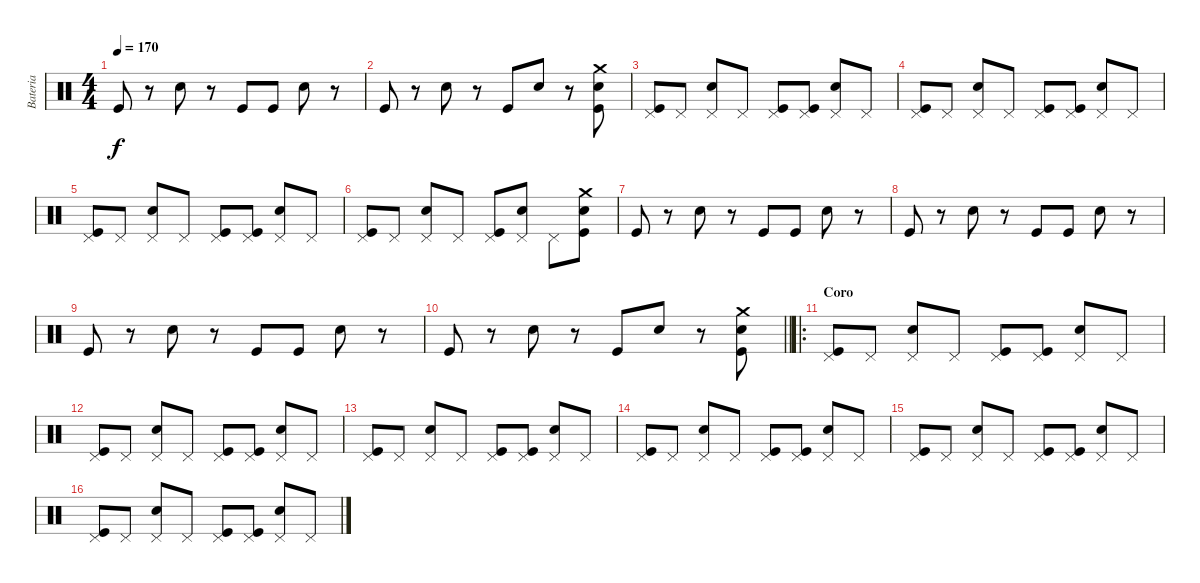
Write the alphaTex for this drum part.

\track ("Bateria" "Bateria") {instrument percussion}
\staff {score}
\articulation defaults
\ts (4 4)
\tempo 170
\clef neutral
\ks c "Kick (hit)".8{dy f}
r.8 "Electric Snare (hit)".8 r.8 "Kick (hit)".8 "Kick (hit)".8 "Electric Snare (hit)".8 r.8 |
"Kick (hit)".8 r.8 "Electric Snare (hit)".8 r.8 "Kick (hit)".8 "Electric Snare (hit)".8 r.8 ("Crash medium (hit)" "Electric Snare (hit)" "Kick (hit)").8 |
("Pedal Hi-Hat (hit)" "Kick (hit)").8 "Pedal Hi-Hat (hit)".8 ("Pedal Hi-Hat (hit)" "Electric Snare (hit)").8 "Pedal Hi-Hat (hit)".8 ("Pedal Hi-Hat (hit)" "Kick (hit)").8 ("Pedal Hi-Hat (hit)" "Kick (hit)").8 ("Pedal Hi-Hat (hit)" "Electric Snare (hit)").8 "Pedal Hi-Hat (hit)".8 |
("Pedal Hi-Hat (hit)" "Kick (hit)").8 "Pedal Hi-Hat (hit)".8 ("Pedal Hi-Hat (hit)" "Electric Snare (hit)").8 "Pedal Hi-Hat (hit)".8 ("Pedal Hi-Hat (hit)" "Kick (hit)").8 ("Pedal Hi-Hat (hit)" "Kick (hit)").8 ("Pedal Hi-Hat (hit)" "Electric Snare (hit)").8 "Pedal Hi-Hat (hit)".8 |
("Pedal Hi-Hat (hit)" "Kick (hit)").8 "Pedal Hi-Hat (hit)".8 ("Pedal Hi-Hat (hit)" "Electric Snare (hit)").8 "Pedal Hi-Hat (hit)".8 ("Pedal Hi-Hat (hit)" "Kick (hit)").8 ("Pedal Hi-Hat (hit)" "Kick (hit)").8 ("Pedal Hi-Hat (hit)" "Electric Snare (hit)").8 "Pedal Hi-Hat (hit)".8 |
("Pedal Hi-Hat (hit)" "Kick (hit)").8 "Pedal Hi-Hat (hit)".8 ("Pedal Hi-Hat (hit)" "Electric Snare (hit)").8 "Pedal Hi-Hat (hit)".8 ("Pedal Hi-Hat (hit)" "Kick (hit)").8 ("Pedal Hi-Hat (hit)" "Electric Snare (hit)").8 "Pedal Hi-Hat (hit)".8 ("Crash medium (hit)" "Electric Snare (hit)" "Kick (hit)").8 |
"Kick (hit)".8 r.8 "Electric Snare (hit)".8 r.8 "Kick (hit)".8 "Kick (hit)".8 "Electric Snare (hit)".8 r.8 |
"Kick (hit)".8 r.8 "Electric Snare (hit)".8 r.8 "Kick (hit)".8 "Kick (hit)".8 "Electric Snare (hit)".8 r.8 |
"Kick (hit)".8 r.8 "Electric Snare (hit)".8 r.8 "Kick (hit)".8 "Kick (hit)".8 "Electric Snare (hit)".8 r.8 |
\barLineRight lightlight "Kick (hit)".8
r.8 "Electric Snare (hit)".8 r.8 "Kick (hit)".8 "Electric Snare (hit)".8 r.8 ("Crash medium (hit)" "Electric Snare (hit)" "Kick (hit)").8 |
\ro
\section ("" "Coro")
("Pedal Hi-Hat (hit)" "Kick (hit)").8 "Pedal Hi-Hat (hit)".8 ("Pedal Hi-Hat (hit)" "Electric Snare (hit)").8 "Pedal Hi-Hat (hit)".8 ("Pedal Hi-Hat (hit)" "Kick (hit)").8 ("Pedal Hi-Hat (hit)" "Kick (hit)").8 ("Pedal Hi-Hat (hit)" "Electric Snare (hit)").8 "Pedal Hi-Hat (hit)".8 |
("Pedal Hi-Hat (hit)" "Kick (hit)").8 "Pedal Hi-Hat (hit)".8 ("Pedal Hi-Hat (hit)" "Electric Snare (hit)").8 "Pedal Hi-Hat (hit)".8 ("Pedal Hi-Hat (hit)" "Kick (hit)").8 ("Pedal Hi-Hat (hit)" "Kick (hit)").8 ("Pedal Hi-Hat (hit)" "Electric Snare (hit)").8 "Pedal Hi-Hat (hit)".8 |
("Pedal Hi-Hat (hit)" "Kick (hit)").8 "Pedal Hi-Hat (hit)".8 ("Pedal Hi-Hat (hit)" "Electric Snare (hit)").8 "Pedal Hi-Hat (hit)".8 ("Pedal Hi-Hat (hit)" "Kick (hit)").8 ("Pedal Hi-Hat (hit)" "Kick (hit)").8 ("Pedal Hi-Hat (hit)" "Electric Snare (hit)").8 "Pedal Hi-Hat (hit)".8 |
("Pedal Hi-Hat (hit)" "Kick (hit)").8 "Pedal Hi-Hat (hit)".8 ("Pedal Hi-Hat (hit)" "Electric Snare (hit)").8 "Pedal Hi-Hat (hit)".8 ("Pedal Hi-Hat (hit)" "Kick (hit)").8 ("Pedal Hi-Hat (hit)" "Kick (hit)").8 ("Pedal Hi-Hat (hit)" "Electric Snare (hit)").8 "Pedal Hi-Hat (hit)".8 |
("Pedal Hi-Hat (hit)" "Kick (hit)").8 "Pedal Hi-Hat (hit)".8 ("Pedal Hi-Hat (hit)" "Electric Snare (hit)").8 "Pedal Hi-Hat (hit)".8 ("Pedal Hi-Hat (hit)" "Kick (hit)").8 ("Pedal Hi-Hat (hit)" "Kick (hit)").8 ("Pedal Hi-Hat (hit)" "Electric Snare (hit)").8 "Pedal Hi-Hat (hit)".8 |
("Pedal Hi-Hat (hit)" "Kick (hit)").8 "Pedal Hi-Hat (hit)".8 ("Pedal Hi-Hat (hit)" "Electric Snare (hit)").8 "Pedal Hi-Hat (hit)".8 ("Pedal Hi-Hat (hit)" "Kick (hit)").8 ("Pedal Hi-Hat (hit)" "Kick (hit)").8 ("Pedal Hi-Hat (hit)" "Electric Snare (hit)").8 "Pedal Hi-Hat (hit)".8
